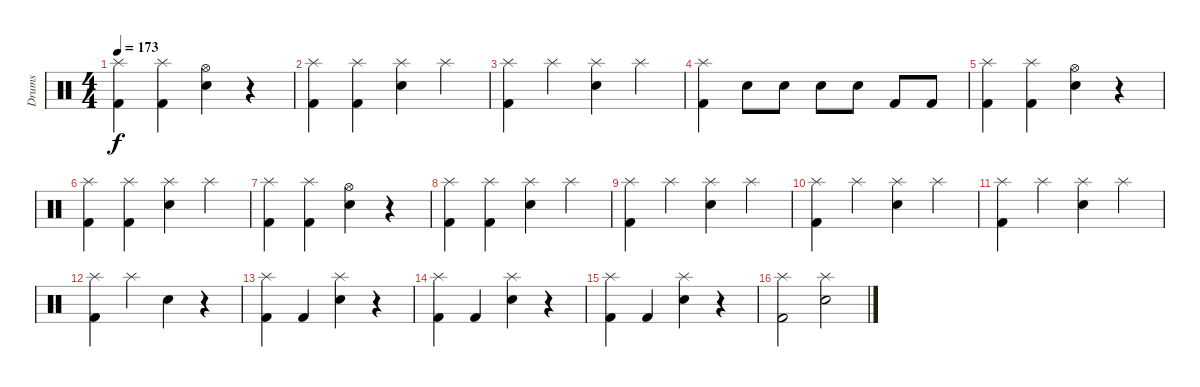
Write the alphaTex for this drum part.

\track ("Drums" "Drums") {instrument percussion}
\staff {score}
\articulation defaults
\ts (4 4)
\tempo 173
\clef neutral
\ks c
("Splash (hit)" "Kick (hit) 2").4{dy f} ("Splash (hit)" "Kick (hit) 2").4 ("Hi-Hat (open)" "Snare (hit) 2").4 r.4 |
("Splash (hit)" "Kick (hit) 2").4 ("Splash (hit)" "Kick (hit) 2").4 ("Splash (hit)" "Snare (hit) 2").4 "Splash (hit)".4 |
("Splash (hit)" "Kick (hit) 2").4 "Splash (hit)".4 ("Splash (hit)" "Snare (hit) 2").4 "Splash (hit)".4 |
("Splash (hit)" "Kick (hit) 2").4 "Snare (hit) 2".8 "Snare (hit) 2".8 "Snare (hit) 2".8 "Snare (hit) 2".8 "Kick (hit) 2".8 "Kick (hit) 2".8 |
("Splash (hit)" "Kick (hit) 2").4 ("Splash (hit)" "Kick (hit) 2").4 ("Hi-Hat (open)" "Snare (hit) 2").4 r.4 |
("Splash (hit)" "Kick (hit) 2").4 ("Splash (hit)" "Kick (hit) 2").4 ("Splash (hit)" "Snare (hit) 2").4 "Splash (hit)".4 |
("Splash (hit)" "Kick (hit) 2").4 ("Splash (hit)" "Kick (hit) 2").4 ("Hi-Hat (open)" "Snare (hit) 2").4 r.4 |
("Splash (hit)" "Kick (hit) 2").4 ("Splash (hit)" "Kick (hit) 2").4 ("Splash (hit)" "Snare (hit) 2").4 "Splash (hit)".4 |
("Splash (hit)" "Kick (hit) 2").4 "Splash (hit)".4 ("Splash (hit)" "Snare (hit) 2").4 "Splash (hit)".4 |
("Splash (hit)" "Kick (hit) 2").4 "Splash (hit)".4 ("Splash (hit)" "Snare (hit) 2").4 "Splash (hit)".4 |
("Splash (hit)" "Kick (hit) 2").4 "Splash (hit)".4 ("Splash (hit)" "Snare (hit) 2").4 "Splash (hit)".4 |
("Splash (hit)" "Kick (hit) 2").4 "Splash (hit)".4 "Snare (hit) 2".4 r.4 |
("Splash (hit)" "Kick (hit) 2").4 "Kick (hit) 2".4 ("Splash (hit)" "Snare (hit) 2").4 r.4 |
("Splash (hit)" "Kick (hit) 2").4 "Kick (hit) 2".4 ("Splash (hit)" "Snare (hit) 2").4 r.4 |
("Splash (hit)" "Kick (hit) 2").4 "Kick (hit) 2".4 ("Splash (hit)" "Snare (hit) 2").4 r.4 |
("Splash (hit)" "Kick (hit) 2").2 ("Splash (hit)" "Snare (hit) 2").2
